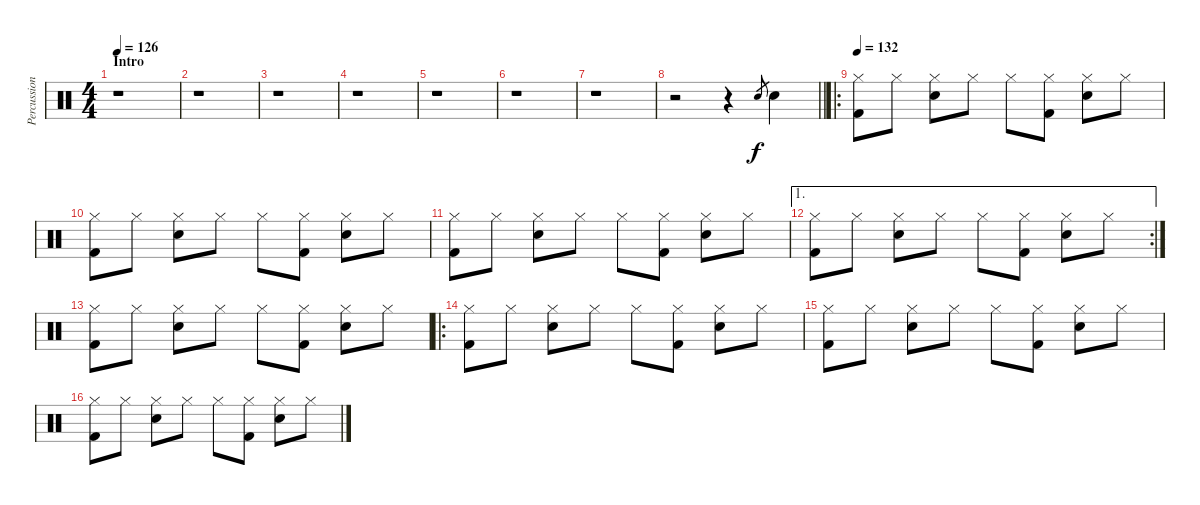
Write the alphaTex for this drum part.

\track ("Percussion" "Percussion") {instrument percussion}
\staff {score}
\articulation defaults
\ts (4 4)
\section ("" "Intro")
\tempo 126
\clef neutral
\ks c
r.1{dy f} |
r.1 |
r.1 |
r.1 |
r.1 |
r.1 |
r.1 |
\barLineRight lightlight
r.2 r.4 "Snare (hit) 2".8{gr} "Snare (hit) 2".4 |
\ro
\tempo 132
("Hi-Hat (closed)" "Kick (hit) 2").8 "Hi-Hat (closed)".8 ("Hi-Hat (closed)" "Snare (hit) 2").8 "Hi-Hat (closed)".8 "Hi-Hat (closed)".8 ("Hi-Hat (closed)" "Kick (hit) 2").8 ("Hi-Hat (closed)" "Snare (hit) 2").8 "Hi-Hat (closed)".8 |
("Hi-Hat (closed)" "Kick (hit) 2").8 "Hi-Hat (closed)".8 ("Hi-Hat (closed)" "Snare (hit) 2").8 "Hi-Hat (closed)".8 "Hi-Hat (closed)".8 ("Hi-Hat (closed)" "Kick (hit) 2").8 ("Hi-Hat (closed)" "Snare (hit) 2").8 "Hi-Hat (closed)".8 |
("Hi-Hat (closed)" "Kick (hit) 2").8 "Hi-Hat (closed)".8 ("Hi-Hat (closed)" "Snare (hit) 2").8 "Hi-Hat (closed)".8 "Hi-Hat (closed)".8 ("Hi-Hat (closed)" "Kick (hit) 2").8 ("Hi-Hat (closed)" "Snare (hit) 2").8 "Hi-Hat (closed)".8 |
\ae 1
\rc 2
("Hi-Hat (closed)" "Kick (hit) 2").8 "Hi-Hat (closed)".8 ("Hi-Hat (closed)" "Snare (hit) 2").8 "Hi-Hat (closed)".8 "Hi-Hat (closed)".8 ("Hi-Hat (closed)" "Kick (hit) 2").8 ("Hi-Hat (closed)" "Snare (hit) 2").8 "Hi-Hat (closed)".8 |
("Hi-Hat (closed)" "Kick (hit) 2").8 "Hi-Hat (closed)".8 ("Hi-Hat (closed)" "Snare (hit) 2").8 "Hi-Hat (closed)".8 "Hi-Hat (closed)".8 ("Hi-Hat (closed)" "Kick (hit) 2").8 ("Hi-Hat (closed)" "Snare (hit) 2").8 "Hi-Hat (closed)".8 |
\ro
("Hi-Hat (closed)" "Kick (hit) 2").8 "Hi-Hat (closed)".8 ("Hi-Hat (closed)" "Snare (hit) 2").8 "Hi-Hat (closed)".8 "Hi-Hat (closed)".8 ("Hi-Hat (closed)" "Kick (hit) 2").8 ("Hi-Hat (closed)" "Snare (hit) 2").8 "Hi-Hat (closed)".8 |
("Hi-Hat (closed)" "Kick (hit) 2").8 "Hi-Hat (closed)".8 ("Hi-Hat (closed)" "Snare (hit) 2").8 "Hi-Hat (closed)".8 "Hi-Hat (closed)".8 ("Hi-Hat (closed)" "Kick (hit) 2").8 ("Hi-Hat (closed)" "Snare (hit) 2").8 "Hi-Hat (closed)".8 |
("Hi-Hat (closed)" "Kick (hit) 2").8 "Hi-Hat (closed)".8 ("Hi-Hat (closed)" "Snare (hit) 2").8 "Hi-Hat (closed)".8 "Hi-Hat (closed)".8 ("Hi-Hat (closed)" "Kick (hit) 2").8 ("Hi-Hat (closed)" "Snare (hit) 2").8 "Hi-Hat (closed)".8
